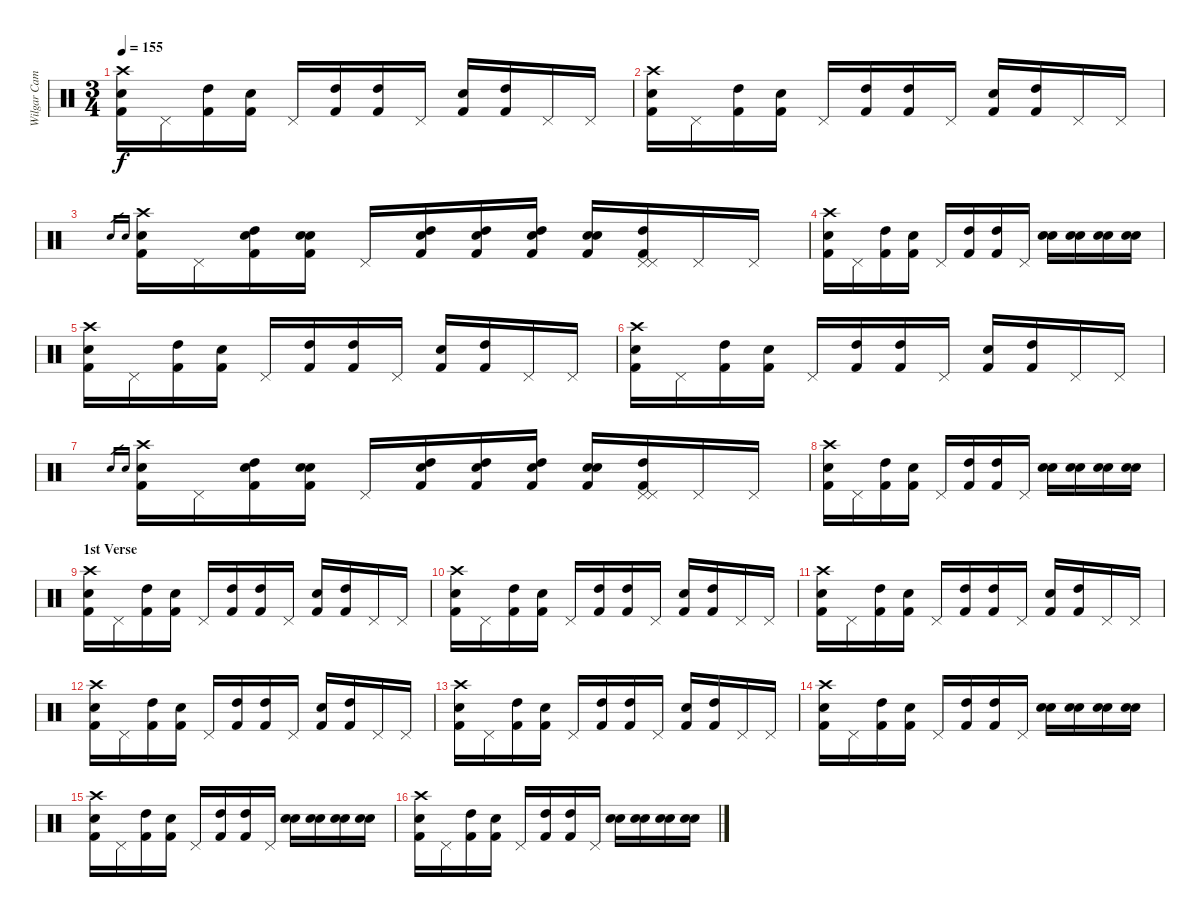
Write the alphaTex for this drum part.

\track ("Wilgar Campbell" "Wilgar Cam") {instrument percussion}
\staff {score}
\articulation defaults
\ts (3 4)
\tempo 155
\clef neutral
\ks c
("Kick (hit) 2" "Snare (hit) 2" "Crash high (hit)").16{dy f} "Pedal Hi-Hat (hit)".16 ("Kick (hit) 2" "High Tom (hit)").16 ("Kick (hit) 2" "Snare (hit) 2").16 "Pedal Hi-Hat (hit)".16 ("High Tom (hit)" "Kick (hit) 2").16 ("High Tom (hit)" "Kick (hit) 2").16 "Pedal Hi-Hat (hit)".16 ("Electric Snare (hit)" "Kick (hit) 2").16 ("High Tom (hit)" "Kick (hit) 2").16 "Pedal Hi-Hat (hit)".16 "Pedal Hi-Hat (hit)".16 |
("Kick (hit) 2" "Snare (hit) 2" "Crash high (hit)").16 "Pedal Hi-Hat (hit)".16 ("Kick (hit) 2" "High Tom (hit)").16 ("Kick (hit) 2" "Snare (hit) 2").16 "Pedal Hi-Hat (hit)".16 ("High Tom (hit)" "Kick (hit) 2").16 ("High Tom (hit)" "Kick (hit) 2").16 "Pedal Hi-Hat (hit)".16 ("Electric Snare (hit)" "Kick (hit) 2").16 ("High Tom (hit)" "Kick (hit) 2").16 "Pedal Hi-Hat (hit)".16 "Pedal Hi-Hat (hit)".16 |
"Electric Snare (hit)".16{gr} "Electric Snare (hit)".16{gr} ("Kick (hit) 2" "Snare (hit) 2" "Crash high (hit)").16 "Pedal Hi-Hat (hit)".16 ("Electric Snare (hit)" "Kick (hit) 2" "High Tom (hit)").16 ("Electric Snare (hit)" "Kick (hit) 2" "Snare (hit) 2").16 "Pedal Hi-Hat (hit)".16 ("Electric Snare (hit)" "High Tom (hit)" "Kick (hit) 2").16 ("Electric Snare (hit)" "High Tom (hit)" "Kick (hit) 2").16 ("Electric Snare (hit)" "High Tom (hit)" "Kick (hit) 2").16 ("Electric Snare (hit)" "Electric Snare (hit)" "Kick (hit) 2").16 ("Kick (hit) 2" "Pedal Hi-Hat (hit)" "High Tom (hit)" "Pedal Hi-Hat (hit)").16 "Pedal Hi-Hat (hit)".16 "Pedal Hi-Hat (hit)".16 |
("Kick (hit) 2" "Snare (hit) 2" "Crash high (hit)").16 "Pedal Hi-Hat (hit)".16 ("Kick (hit) 2" "High Tom (hit)").16 ("Kick (hit) 2" "Snare (hit) 2").16 "Pedal Hi-Hat (hit)".16 ("High Tom (hit)" "Kick (hit) 2").16 ("High Tom (hit)" "Kick (hit) 2").16 "Pedal Hi-Hat (hit)".16 ("Electric Snare (hit)" "Electric Snare (hit)").16 ("Electric Snare (hit)" "Electric Snare (hit)").16 ("Electric Snare (hit)" "Electric Snare (hit)").16 ("Electric Snare (hit)" "Electric Snare (hit)").16 |
("Kick (hit) 2" "Snare (hit) 2" "Crash high (hit)").16 "Pedal Hi-Hat (hit)".16 ("Kick (hit) 2" "High Tom (hit)").16 ("Kick (hit) 2" "Snare (hit) 2").16 "Pedal Hi-Hat (hit)".16 ("High Tom (hit)" "Kick (hit) 2").16 ("High Tom (hit)" "Kick (hit) 2").16 "Pedal Hi-Hat (hit)".16 ("Electric Snare (hit)" "Kick (hit) 2").16 ("High Tom (hit)" "Kick (hit) 2").16 "Pedal Hi-Hat (hit)".16 "Pedal Hi-Hat (hit)".16 |
("Kick (hit) 2" "Snare (hit) 2" "Crash high (hit)").16 "Pedal Hi-Hat (hit)".16 ("Kick (hit) 2" "High Tom (hit)").16 ("Kick (hit) 2" "Snare (hit) 2").16 "Pedal Hi-Hat (hit)".16 ("High Tom (hit)" "Kick (hit) 2").16 ("High Tom (hit)" "Kick (hit) 2").16 "Pedal Hi-Hat (hit)".16 ("Electric Snare (hit)" "Kick (hit) 2").16 ("High Tom (hit)" "Kick (hit) 2").16 "Pedal Hi-Hat (hit)".16 "Pedal Hi-Hat (hit)".16 |
"Electric Snare (hit)".16{gr} "Electric Snare (hit)".16{gr} ("Kick (hit) 2" "Snare (hit) 2" "Crash high (hit)").16 "Pedal Hi-Hat (hit)".16 ("Electric Snare (hit)" "Kick (hit) 2" "High Tom (hit)").16 ("Electric Snare (hit)" "Kick (hit) 2" "Snare (hit) 2").16 "Pedal Hi-Hat (hit)".16 ("Electric Snare (hit)" "High Tom (hit)" "Kick (hit) 2").16 ("Electric Snare (hit)" "High Tom (hit)" "Kick (hit) 2").16 ("Electric Snare (hit)" "High Tom (hit)" "Kick (hit) 2").16 ("Electric Snare (hit)" "Electric Snare (hit)" "Kick (hit) 2").16 ("Kick (hit) 2" "Pedal Hi-Hat (hit)" "High Tom (hit)" "Pedal Hi-Hat (hit)").16 "Pedal Hi-Hat (hit)".16 "Pedal Hi-Hat (hit)".16 |
("Kick (hit) 2" "Snare (hit) 2" "Crash high (hit)").16 "Pedal Hi-Hat (hit)".16 ("Kick (hit) 2" "High Tom (hit)").16 ("Kick (hit) 2" "Snare (hit) 2").16 "Pedal Hi-Hat (hit)".16 ("High Tom (hit)" "Kick (hit) 2").16 ("High Tom (hit)" "Kick (hit) 2").16 "Pedal Hi-Hat (hit)".16 ("Electric Snare (hit)" "Electric Snare (hit)").16 ("Electric Snare (hit)" "Electric Snare (hit)").16 ("Electric Snare (hit)" "Electric Snare (hit)").16 ("Electric Snare (hit)" "Electric Snare (hit)").16 |
\section ("" "1st Verse")
("Kick (hit) 2" "Snare (hit) 2" "Crash high (hit)").16 "Pedal Hi-Hat (hit)".16 ("Kick (hit) 2" "High Tom (hit)").16 ("Kick (hit) 2" "Snare (hit) 2").16 "Pedal Hi-Hat (hit)".16 ("High Tom (hit)" "Kick (hit) 2").16 ("High Tom (hit)" "Kick (hit) 2").16 "Pedal Hi-Hat (hit)".16 ("Electric Snare (hit)" "Kick (hit) 2").16 ("High Tom (hit)" "Kick (hit) 2").16 "Pedal Hi-Hat (hit)".16 "Pedal Hi-Hat (hit)".16 |
("Kick (hit) 2" "Snare (hit) 2" "Crash high (hit)").16 "Pedal Hi-Hat (hit)".16 ("Kick (hit) 2" "High Tom (hit)").16 ("Kick (hit) 2" "Snare (hit) 2").16 "Pedal Hi-Hat (hit)".16 ("High Tom (hit)" "Kick (hit) 2").16 ("High Tom (hit)" "Kick (hit) 2").16 "Pedal Hi-Hat (hit)".16 ("Electric Snare (hit)" "Kick (hit) 2").16 ("High Tom (hit)" "Kick (hit) 2").16 "Pedal Hi-Hat (hit)".16 "Pedal Hi-Hat (hit)".16 |
("Kick (hit) 2" "Snare (hit) 2" "Crash high (hit)").16 "Pedal Hi-Hat (hit)".16 ("Kick (hit) 2" "High Tom (hit)").16 ("Kick (hit) 2" "Snare (hit) 2").16 "Pedal Hi-Hat (hit)".16 ("High Tom (hit)" "Kick (hit) 2").16 ("High Tom (hit)" "Kick (hit) 2").16 "Pedal Hi-Hat (hit)".16 ("Electric Snare (hit)" "Kick (hit) 2").16 ("High Tom (hit)" "Kick (hit) 2").16 "Pedal Hi-Hat (hit)".16 "Pedal Hi-Hat (hit)".16 |
("Kick (hit) 2" "Snare (hit) 2" "Crash high (hit)").16 "Pedal Hi-Hat (hit)".16 ("Kick (hit) 2" "High Tom (hit)").16 ("Kick (hit) 2" "Snare (hit) 2").16 "Pedal Hi-Hat (hit)".16 ("High Tom (hit)" "Kick (hit) 2").16 ("High Tom (hit)" "Kick (hit) 2").16 "Pedal Hi-Hat (hit)".16 ("Electric Snare (hit)" "Kick (hit) 2").16 ("High Tom (hit)" "Kick (hit) 2").16 "Pedal Hi-Hat (hit)".16 "Pedal Hi-Hat (hit)".16 |
("Kick (hit) 2" "Snare (hit) 2" "Crash high (hit)").16 "Pedal Hi-Hat (hit)".16 ("Kick (hit) 2" "High Tom (hit)").16 ("Kick (hit) 2" "Snare (hit) 2").16 "Pedal Hi-Hat (hit)".16 ("High Tom (hit)" "Kick (hit) 2").16 ("High Tom (hit)" "Kick (hit) 2").16 "Pedal Hi-Hat (hit)".16 ("Electric Snare (hit)" "Kick (hit) 2").16 ("High Tom (hit)" "Kick (hit) 2").16 "Pedal Hi-Hat (hit)".16 "Pedal Hi-Hat (hit)".16 |
("Kick (hit) 2" "Snare (hit) 2" "Crash high (hit)").16 "Pedal Hi-Hat (hit)".16 ("Kick (hit) 2" "High Tom (hit)").16 ("Kick (hit) 2" "Snare (hit) 2").16 "Pedal Hi-Hat (hit)".16 ("High Tom (hit)" "Kick (hit) 2").16 ("High Tom (hit)" "Kick (hit) 2").16 "Pedal Hi-Hat (hit)".16 ("Electric Snare (hit)" "Electric Snare (hit)").16 ("Electric Snare (hit)" "Electric Snare (hit)").16 ("Electric Snare (hit)" "Electric Snare (hit)").16 ("Electric Snare (hit)" "Electric Snare (hit)").16 |
("Kick (hit) 2" "Snare (hit) 2" "Crash high (hit)").16 "Pedal Hi-Hat (hit)".16 ("Kick (hit) 2" "High Tom (hit)").16 ("Kick (hit) 2" "Snare (hit) 2").16 "Pedal Hi-Hat (hit)".16 ("High Tom (hit)" "Kick (hit) 2").16 ("High Tom (hit)" "Kick (hit) 2").16 "Pedal Hi-Hat (hit)".16 ("Electric Snare (hit)" "Electric Snare (hit)").16 ("Electric Snare (hit)" "Electric Snare (hit)").16 ("Electric Snare (hit)" "Electric Snare (hit)").16 ("Electric Snare (hit)" "Electric Snare (hit)").16 |
("Kick (hit) 2" "Snare (hit) 2" "Crash high (hit)").16 "Pedal Hi-Hat (hit)".16 ("Kick (hit) 2" "High Tom (hit)").16 ("Kick (hit) 2" "Snare (hit) 2").16 "Pedal Hi-Hat (hit)".16 ("High Tom (hit)" "Kick (hit) 2").16 ("High Tom (hit)" "Kick (hit) 2").16 "Pedal Hi-Hat (hit)".16 ("Electric Snare (hit)" "Electric Snare (hit)").16 ("Electric Snare (hit)" "Electric Snare (hit)").16 ("Electric Snare (hit)" "Electric Snare (hit)").16 ("Electric Snare (hit)" "Electric Snare (hit)").16
